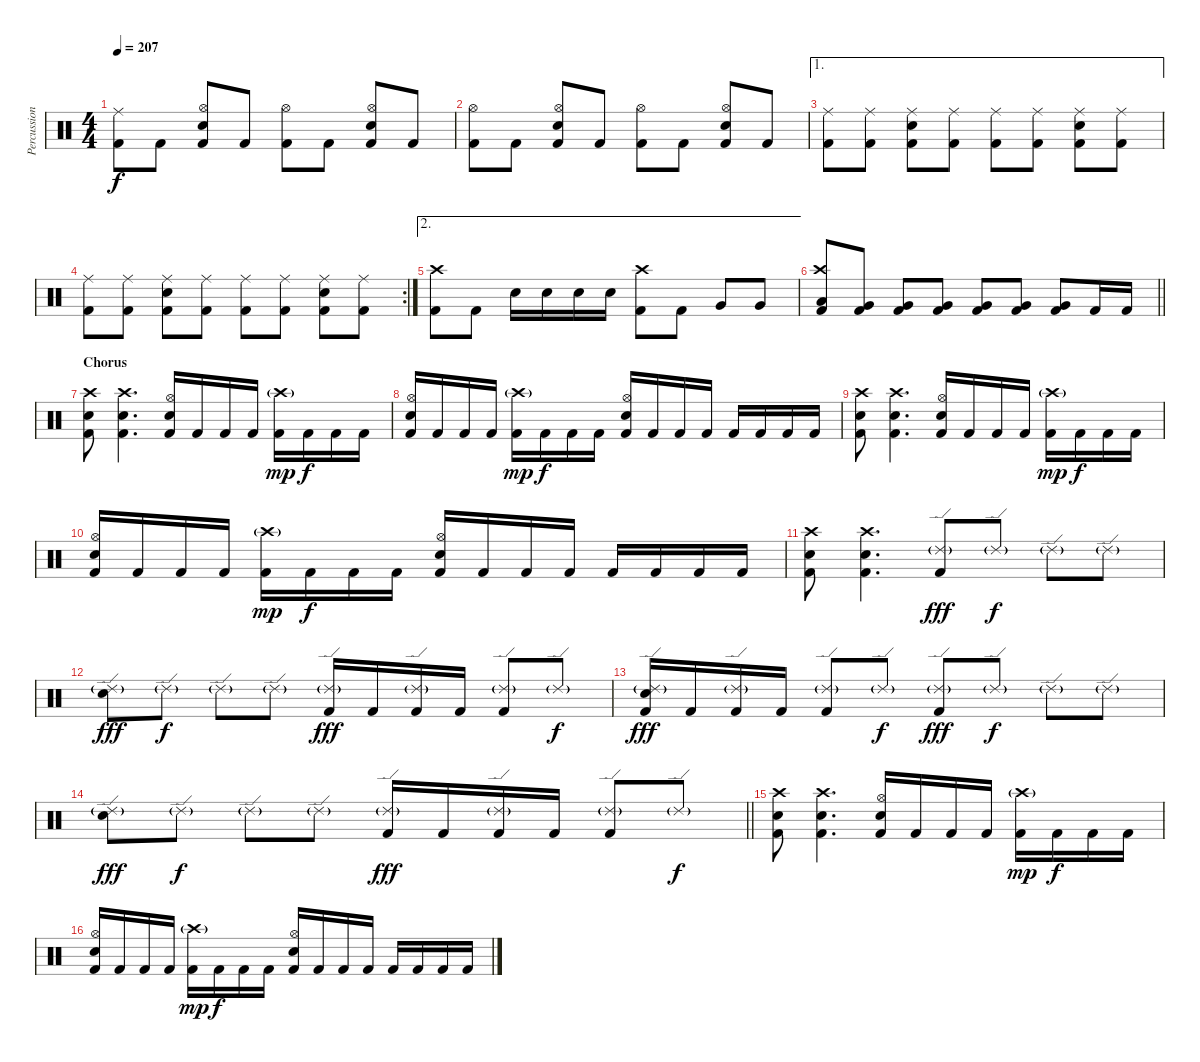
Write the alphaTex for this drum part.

\track ("Percussion" "Percussion") {instrument percussion}
\staff {score}
\articulation defaults
\ts (4 4)
\tempo 207
\clef neutral
\ks c
("Ride (middle)" "Kick (hit) 2").8{dy f} "Kick (hit) 2".8 ("Hi-Hat (open)" "Electric Snare (hit)" "Kick (hit) 2").8 "Kick (hit) 2".8 ("Hi-Hat (open)" "Kick (hit) 2").8 "Kick (hit) 2".8 ("Hi-Hat (open)" "Electric Snare (hit)" "Kick (hit) 2").8 "Kick (hit) 2".8 |
("Hi-Hat (open)" "Kick (hit) 2").8 "Kick (hit) 2".8 ("Hi-Hat (open)" "Electric Snare (hit)" "Kick (hit) 2").8 "Kick (hit) 2".8 ("Hi-Hat (open)" "Kick (hit) 2").8 "Kick (hit) 2".8 ("Hi-Hat (open)" "Electric Snare (hit)" "Kick (hit) 2").8 "Kick (hit) 2".8 |
\ae 1
("Ride (middle)" "Kick (hit) 2").8 ("Ride (middle)" "Kick (hit) 2").8 ("Ride (middle)" "Electric Snare (hit)" "Kick (hit) 2").8 ("Ride (middle)" "Kick (hit) 2").8 ("Ride (middle)" "Kick (hit) 2").8 ("Ride (middle)" "Kick (hit) 2").8 ("Ride (middle)" "Electric Snare (hit)" "Kick (hit) 2").8 ("Ride (middle)" "Kick (hit) 2").8 |
\rc 2
("Ride (middle)" "Kick (hit) 2").8 ("Ride (middle)" "Kick (hit) 2").8 ("Ride (middle)" "Electric Snare (hit)" "Kick (hit) 2").8 ("Ride (middle)" "Kick (hit) 2").8 ("Ride (middle)" "Kick (hit) 2").8 ("Ride (middle)" "Kick (hit) 2").8 ("Ride (middle)" "Electric Snare (hit)" "Kick (hit) 2").8 ("Ride (middle)" "Kick (hit) 2").8 |
\ae 2
("Crash high (hit)" "Kick (hit) 2").8 "Kick (hit) 2".8 "Electric Snare (hit)".16 "Electric Snare (hit)".16 "Electric Snare (hit)".16 "Electric Snare (hit)".16 ("Crash high (hit)" "Kick (hit) 2").8 "Kick (hit) 2".8 "Very Low Tom (hit)".8 "Very Low Tom (hit)".8 |
\barLineRight lightlight
("Crash high (hit)" "Low Tom (hit)" "Kick (hit) 2").8 ("Very Low Tom (hit)" "Kick (hit) 2").8 ("Very Low Tom (hit)" "Kick (hit) 2").8 ("Very Low Tom (hit)" "Kick (hit) 2").8 ("Very Low Tom (hit)" "Kick (hit) 2").8 ("Very Low Tom (hit)" "Kick (hit) 2").8 ("Very Low Tom (hit)" "Kick (hit) 2").8 "Kick (hit) 2".16 "Kick (hit) 2".16 |
\section ("" "Chorus")
("Crash high (hit)" "Electric Snare (hit)" "Kick (hit) 2").8 ("Crash high (hit)" "Electric Snare (hit)" "Kick (hit) 2").4{d} ("Hi-Hat (open)" "Electric Snare (hit)" "Kick (hit) 2").16 "Kick (hit) 2".16 "Kick (hit) 2".16 "Kick (hit) 2".16 ("Crash high (hit)"{g} "Kick (hit) 2").16{dy mp} "Kick (hit) 2".16{dy f} "Kick (hit) 2".16 "Kick (hit) 2".16 |
("Hi-Hat (open)" "Electric Snare (hit)" "Kick (hit) 2").16 "Kick (hit) 2".16 "Kick (hit) 2".16 "Kick (hit) 2".16 ("Crash high (hit)"{g} "Kick (hit) 2").16{dy mp} "Kick (hit) 2".16{dy f} "Kick (hit) 2".16 "Kick (hit) 2".16 ("Hi-Hat (open)" "Electric Snare (hit)" "Kick (hit) 2").16 "Kick (hit) 2".16 "Kick (hit) 2".16 "Kick (hit) 2".16 "Kick (hit) 2".16 "Kick (hit) 2".16 "Kick (hit) 2".16 "Kick (hit) 2".16 |
("Crash high (hit)" "Electric Snare (hit)" "Kick (hit) 2").8 ("Crash high (hit)" "Electric Snare (hit)" "Kick (hit) 2").4{d} ("Hi-Hat (open)" "Electric Snare (hit)" "Kick (hit) 2").16 "Kick (hit) 2".16 "Kick (hit) 2".16 "Kick (hit) 2".16 ("Crash high (hit)"{g} "Kick (hit) 2").16{dy mp} "Kick (hit) 2".16{dy f} "Kick (hit) 2".16 "Kick (hit) 2".16 |
("Hi-Hat (open)" "Electric Snare (hit)" "Kick (hit) 2").16 "Kick (hit) 2".16 "Kick (hit) 2".16 "Kick (hit) 2".16 ("Crash high (hit)"{g} "Kick (hit) 2").16{dy mp} "Kick (hit) 2".16{dy f} "Kick (hit) 2".16 "Kick (hit) 2".16 ("Hi-Hat (open)" "Electric Snare (hit)" "Kick (hit) 2").16 "Kick (hit) 2".16 "Kick (hit) 2".16 "Kick (hit) 2".16 "Kick (hit) 2".16 "Kick (hit) 2".16 "Kick (hit) 2".16 "Kick (hit) 2".16 |
("Crash high (hit)" "Electric Snare (hit)" "Kick (hit) 2").8 ("Crash high (hit)" "Electric Snare (hit)" "Kick (hit) 2").4{d} ("Ride (edge) 2"{g} "Kick (hit) 2").8{dy fff} "Ride (edge) 2"{g}.8{dy f} "Ride (edge) 2"{g}.8 "Ride (edge) 2"{g}.8 |
("Ride (edge) 2"{g} "Electric Snare (hit)").8{dy fff} "Ride (edge) 2"{g}.8{dy f} "Ride (edge) 2"{g}.8 "Ride (edge) 2"{g}.8 ("Ride (edge) 2"{g} "Kick (hit) 2").16{dy fff} "Kick (hit) 2".16 ("Ride (edge) 2"{g} "Kick (hit) 2").16 "Kick (hit) 2".16 ("Ride (edge) 2"{g} "Kick (hit) 2").8 "Ride (edge) 2"{g}.8{dy f} |
("Ride (edge) 2"{g} "Electric Snare (hit)" "Kick (hit) 2").16{dy fff} "Kick (hit) 2".16 ("Ride (edge) 2"{g} "Kick (hit) 2").16 "Kick (hit) 2".16 ("Ride (edge) 2"{g} "Kick (hit) 2").8 "Ride (edge) 2"{g}.8{dy f} ("Ride (edge) 2"{g} "Kick (hit) 2").8{dy fff} "Ride (edge) 2"{g}.8{dy f} "Ride (edge) 2"{g}.8 "Ride (edge) 2"{g}.8 |
\barLineRight lightlight
("Ride (edge) 2"{g} "Electric Snare (hit)").8{dy fff} "Ride (edge) 2"{g}.8{dy f} "Ride (edge) 2"{g}.8 "Ride (edge) 2"{g}.8 ("Ride (edge) 2"{g} "Kick (hit) 2").16{dy fff} "Kick (hit) 2".16 ("Ride (edge) 2"{g} "Kick (hit) 2").16 "Kick (hit) 2".16 ("Ride (edge) 2"{g} "Kick (hit) 2").8 "Ride (edge) 2"{g}.8{dy f} |
\section ("" "")
("Crash high (hit)" "Electric Snare (hit)" "Kick (hit) 2").8 ("Crash high (hit)" "Electric Snare (hit)" "Kick (hit) 2").4{d} ("Hi-Hat (open)" "Electric Snare (hit)" "Kick (hit) 2").16 "Kick (hit) 2".16 "Kick (hit) 2".16 "Kick (hit) 2".16 ("Crash high (hit)"{g} "Kick (hit) 2").16{dy mp} "Kick (hit) 2".16{dy f} "Kick (hit) 2".16 "Kick (hit) 2".16 |
("Hi-Hat (open)" "Electric Snare (hit)" "Kick (hit) 2").16 "Kick (hit) 2".16 "Kick (hit) 2".16 "Kick (hit) 2".16 ("Crash high (hit)"{g} "Kick (hit) 2").16{dy mp} "Kick (hit) 2".16{dy f} "Kick (hit) 2".16 "Kick (hit) 2".16 ("Hi-Hat (open)" "Electric Snare (hit)" "Kick (hit) 2").16 "Kick (hit) 2".16 "Kick (hit) 2".16 "Kick (hit) 2".16 "Kick (hit) 2".16 "Kick (hit) 2".16 "Kick (hit) 2".16 "Kick (hit) 2".16
